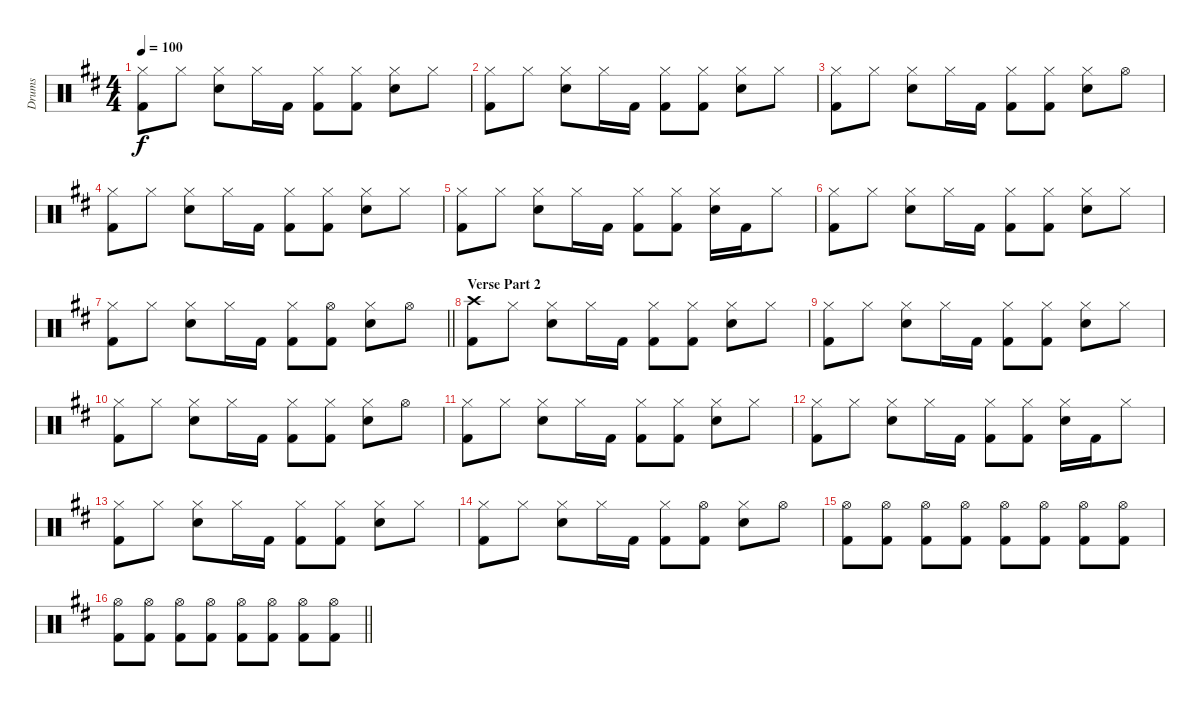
\track ("Drums" "Drums") {instrument percussion}
\staff {score}
\articulation defaults
\ts (4 4)
\tempo 100
\clef neutral
\ks d
("Hi-Hat (closed)" "Kick (hit) 2").8{dy f} "Hi-Hat (closed)".8 ("Hi-Hat (closed)" "Snare (hit) 2").8 "Hi-Hat (closed)".16 "Kick (hit) 2".16 ("Hi-Hat (closed)" "Kick (hit) 2").8 ("Hi-Hat (closed)" "Kick (hit) 2").8 ("Hi-Hat (closed)" "Snare (hit) 2").8 "Hi-Hat (closed)".8 |
("Hi-Hat (closed)" "Kick (hit) 2").8 "Hi-Hat (closed)".8 ("Hi-Hat (closed)" "Snare (hit) 2").8 "Hi-Hat (closed)".16 "Kick (hit) 2".16 ("Hi-Hat (closed)" "Kick (hit) 2").8 ("Hi-Hat (closed)" "Kick (hit) 2").8 ("Hi-Hat (closed)" "Snare (hit) 2").8 "Hi-Hat (closed)".8 |
("Hi-Hat (closed)" "Kick (hit) 2").8 "Hi-Hat (closed)".8 ("Hi-Hat (closed)" "Snare (hit) 2").8 "Hi-Hat (closed)".16 "Kick (hit) 2".16 ("Hi-Hat (closed)" "Kick (hit) 2").8 ("Hi-Hat (closed)" "Kick (hit) 2").8 ("Hi-Hat (closed)" "Snare (hit) 2").8 "Hi-Hat (open)".8 |
("Hi-Hat (closed)" "Kick (hit) 2").8 "Hi-Hat (closed)".8 ("Hi-Hat (closed)" "Snare (hit) 2").8 "Hi-Hat (closed)".16 "Kick (hit) 2".16 ("Hi-Hat (closed)" "Kick (hit) 2").8 ("Hi-Hat (closed)" "Kick (hit) 2").8 ("Hi-Hat (closed)" "Snare (hit) 2").8 "Hi-Hat (closed)".8 |
("Hi-Hat (closed)" "Kick (hit) 2").8 "Hi-Hat (closed)".8 ("Hi-Hat (closed)" "Snare (hit) 2").8 "Hi-Hat (closed)".16 "Kick (hit) 2".16 ("Hi-Hat (closed)" "Kick (hit) 2").8 ("Hi-Hat (closed)" "Kick (hit) 2").8 ("Hi-Hat (closed)" "Snare (hit) 2").16 "Kick (hit) 2".16 "Hi-Hat (closed)".8 |
("Hi-Hat (closed)" "Kick (hit) 2").8 "Hi-Hat (closed)".8 ("Hi-Hat (closed)" "Snare (hit) 2").8 "Hi-Hat (closed)".16 "Kick (hit) 2".16 ("Hi-Hat (closed)" "Kick (hit) 2").8 ("Hi-Hat (closed)" "Kick (hit) 2").8 ("Hi-Hat (closed)" "Snare (hit) 2").8 "Hi-Hat (closed)".8 |
\barLineRight lightlight
("Hi-Hat (closed)" "Kick (hit) 2").8 "Hi-Hat (closed)".8 ("Hi-Hat (closed)" "Snare (hit) 2").8 "Hi-Hat (closed)".16 "Kick (hit) 2".16 ("Hi-Hat (closed)" "Kick (hit) 2").8 ("Hi-Hat (open)" "Kick (hit) 2").8 ("Hi-Hat (closed)" "Snare (hit) 2").8 "Hi-Hat (open)".8 |
\section ("" "Verse Part 2")
("Crash high (hit)" "Kick (hit) 2").8 "Hi-Hat (closed)".8 ("Hi-Hat (closed)" "Snare (hit) 2").8 "Hi-Hat (closed)".16 "Kick (hit) 2".16 ("Hi-Hat (closed)" "Kick (hit) 2").8 ("Hi-Hat (closed)" "Kick (hit) 2").8 ("Hi-Hat (closed)" "Snare (hit) 2").8 "Hi-Hat (closed)".8 |
("Hi-Hat (closed)" "Kick (hit) 2").8 "Hi-Hat (closed)".8 ("Hi-Hat (closed)" "Snare (hit) 2").8 "Hi-Hat (closed)".16 "Kick (hit) 2".16 ("Hi-Hat (closed)" "Kick (hit) 2").8 ("Hi-Hat (closed)" "Kick (hit) 2").8 ("Hi-Hat (closed)" "Snare (hit) 2").8 "Hi-Hat (closed)".8 |
("Hi-Hat (closed)" "Kick (hit) 2").8 "Hi-Hat (closed)".8 ("Hi-Hat (closed)" "Snare (hit) 2").8 "Hi-Hat (closed)".16 "Kick (hit) 2".16 ("Hi-Hat (closed)" "Kick (hit) 2").8 ("Hi-Hat (closed)" "Kick (hit) 2").8 ("Hi-Hat (closed)" "Snare (hit) 2").8 "Hi-Hat (open)".8 |
("Hi-Hat (closed)" "Kick (hit) 2").8 "Hi-Hat (closed)".8 ("Hi-Hat (closed)" "Snare (hit) 2").8 "Hi-Hat (closed)".16 "Kick (hit) 2".16 ("Hi-Hat (closed)" "Kick (hit) 2").8 ("Hi-Hat (closed)" "Kick (hit) 2").8 ("Hi-Hat (closed)" "Snare (hit) 2").8 "Hi-Hat (closed)".8 |
("Hi-Hat (closed)" "Kick (hit) 2").8 "Hi-Hat (closed)".8 ("Hi-Hat (closed)" "Snare (hit) 2").8 "Hi-Hat (closed)".16 "Kick (hit) 2".16 ("Hi-Hat (closed)" "Kick (hit) 2").8 ("Hi-Hat (closed)" "Kick (hit) 2").8 ("Hi-Hat (closed)" "Snare (hit) 2").16 "Kick (hit) 2".16 "Hi-Hat (closed)".8 |
("Hi-Hat (closed)" "Kick (hit) 2").8 "Hi-Hat (closed)".8 ("Hi-Hat (closed)" "Snare (hit) 2").8 "Hi-Hat (closed)".16 "Kick (hit) 2".16 ("Hi-Hat (closed)" "Kick (hit) 2").8 ("Hi-Hat (closed)" "Kick (hit) 2").8 ("Hi-Hat (closed)" "Snare (hit) 2").8 "Hi-Hat (closed)".8 |
("Hi-Hat (closed)" "Kick (hit) 2").8 "Hi-Hat (closed)".8 ("Hi-Hat (closed)" "Snare (hit) 2").8 "Hi-Hat (closed)".16 "Kick (hit) 2".16 ("Hi-Hat (closed)" "Kick (hit) 2").8 ("Hi-Hat (open)" "Kick (hit) 2").8 ("Hi-Hat (closed)" "Snare (hit) 2").8 "Hi-Hat (open)".8 |
("Hi-Hat (open)" "Kick (hit) 2").8 ("Hi-Hat (open)" "Kick (hit) 2").8 ("Hi-Hat (open)" "Kick (hit) 2").8 ("Hi-Hat (open)" "Kick (hit) 2").8 ("Hi-Hat (open)" "Kick (hit) 2").8 ("Hi-Hat (open)" "Kick (hit) 2").8 ("Hi-Hat (open)" "Kick (hit) 2").8 ("Hi-Hat (open)" "Kick (hit) 2").8 |
\barLineRight lightlight
("Hi-Hat (open)" "Kick (hit) 2").8 ("Hi-Hat (open)" "Kick (hit) 2").8 ("Hi-Hat (open)" "Kick (hit) 2").8 ("Hi-Hat (open)" "Kick (hit) 2").8 ("Hi-Hat (open)" "Kick (hit) 2").8 ("Hi-Hat (open)" "Kick (hit) 2").8 ("Hi-Hat (open)" "Kick (hit) 2").8 ("Hi-Hat (open)" "Kick (hit) 2").8
